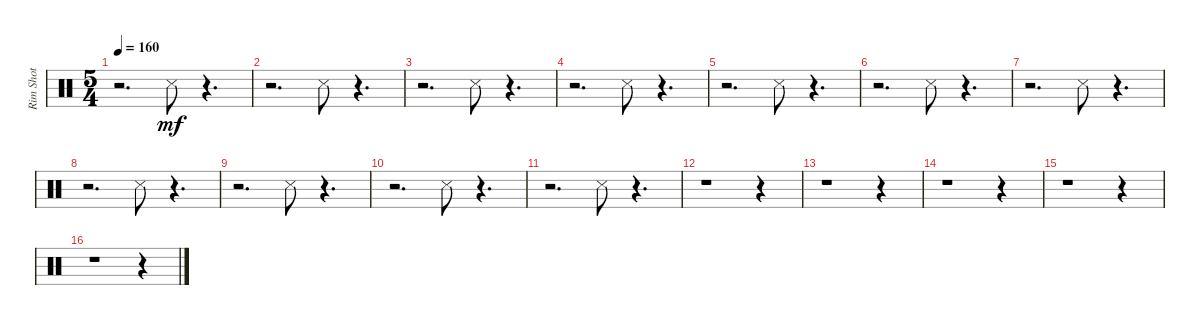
\track ("Rim Shot" "Rim Shot") {instrument percussion}
\staff {score}
\articulation defaults
\ts (5 4)
\tempo 160
\clef neutral
\ks c
r.2{d dy mf} "Snare (side stick) 3".8 r.4{d} |
r.2{d} "Snare (side stick) 3".8 r.4{d} |
r.2{d} "Snare (side stick) 3".8 r.4{d} |
r.2{d} "Snare (side stick) 3".8 r.4{d} |
r.2{d} "Snare (side stick) 3".8 r.4{d} |
r.2{d} "Snare (side stick) 3".8 r.4{d} |
r.2{d} "Snare (side stick) 3".8 r.4{d} |
r.2{d} "Snare (side stick) 3".8 r.4{d} |
r.2{d} "Snare (side stick) 3".8 r.4{d} |
r.2{d} "Snare (side stick) 3".8 r.4{d} |
r.2{d} "Snare (side stick) 3".8 r.4{d} |
r.1 r.4 |
r.1 r.4 |
r.1 r.4 |
r.1 r.4 |
r.1 r.4
